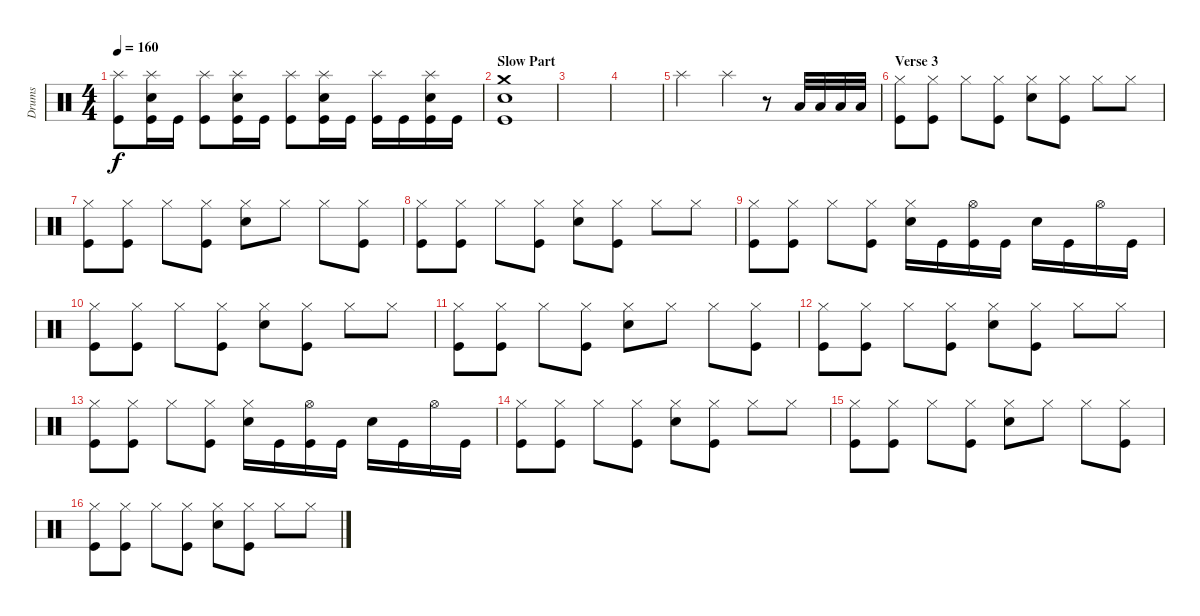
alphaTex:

\track ("Drums" "Drums") {instrument percussion}
\staff {score}
\articulation defaults
\ts (4 4)
\tempo 160
\clef neutral
\ks c
("Splash (hit)" "Kick (hit)").8{dy f} ("Splash (hit)" "Electric Snare (hit)" "Kick (hit)").16 "Kick (hit)".16 ("Splash (hit)" "Kick (hit)").8 ("Splash (hit)" "Electric Snare (hit)" "Kick (hit)").16 "Kick (hit)".16 ("Splash (hit)" "Kick (hit)").8 ("Splash (hit)" "Electric Snare (hit)" "Kick (hit)").16 "Kick (hit)".16 ("Splash (hit)" "Kick (hit)").16 "Kick (hit)".16 ("Splash (hit)" "Electric Snare (hit)" "Kick (hit)").16 "Kick (hit)".16 |
\section ("" "Slow Part")
("Crash medium (hit)" "Electric Snare (hit)" "Kick (hit)").1 |
|
|
"Splash (hit)".2 "Splash (hit)".4 r.8 "Low Floor Tom (hit)".32 "Low Floor Tom (hit)".32 "Low Floor Tom (hit)".32 "Low Floor Tom (hit)".32 |
\section ("" "Verse 3")
("Hi-Hat (closed)" "Kick (hit)").8 ("Hi-Hat (closed)" "Kick (hit)").8 "Hi-Hat (closed)".8 ("Hi-Hat (closed)" "Kick (hit)").8 ("Hi-Hat (closed)" "Electric Snare (hit)").8 ("Hi-Hat (closed)" "Kick (hit)").8 "Hi-Hat (closed)".8 "Hi-Hat (closed)".8 |
("Hi-Hat (closed)" "Kick (hit)").8 ("Hi-Hat (closed)" "Kick (hit)").8 "Hi-Hat (closed)".8 ("Hi-Hat (closed)" "Kick (hit)").8 ("Hi-Hat (closed)" "Electric Snare (hit)").8 "Hi-Hat (closed)".8 "Hi-Hat (closed)".8 ("Hi-Hat (closed)" "Kick (hit)").8 |
("Hi-Hat (closed)" "Kick (hit)").8 ("Hi-Hat (closed)" "Kick (hit)").8 "Hi-Hat (closed)".8 ("Hi-Hat (closed)" "Kick (hit)").8 ("Hi-Hat (closed)" "Electric Snare (hit)").8 ("Hi-Hat (closed)" "Kick (hit)").8 "Hi-Hat (closed)".8 "Hi-Hat (closed)".8 |
("Hi-Hat (closed)" "Kick (hit)").8 ("Hi-Hat (closed)" "Kick (hit)").8 "Hi-Hat (closed)".8 ("Hi-Hat (closed)" "Kick (hit)").8 ("Hi-Hat (closed)" "Electric Snare (hit)").16 "Kick (hit)".16 ("Hi-Hat (open)" "Kick (hit)").16 "Kick (hit)".16 "Electric Snare (hit)".16 "Kick (hit)".16 "Hi-Hat (open)".16 "Kick (hit)".16 |
("Hi-Hat (closed)" "Kick (hit)").8 ("Hi-Hat (closed)" "Kick (hit)").8 "Hi-Hat (closed)".8 ("Hi-Hat (closed)" "Kick (hit)").8 ("Hi-Hat (closed)" "Electric Snare (hit)").8 ("Hi-Hat (closed)" "Kick (hit)").8 "Hi-Hat (closed)".8 "Hi-Hat (closed)".8 |
("Hi-Hat (closed)" "Kick (hit)").8 ("Hi-Hat (closed)" "Kick (hit)").8 "Hi-Hat (closed)".8 ("Hi-Hat (closed)" "Kick (hit)").8 ("Hi-Hat (closed)" "Electric Snare (hit)").8 "Hi-Hat (closed)".8 "Hi-Hat (closed)".8 ("Hi-Hat (closed)" "Kick (hit)").8 |
("Hi-Hat (closed)" "Kick (hit)").8 ("Hi-Hat (closed)" "Kick (hit)").8 "Hi-Hat (closed)".8 ("Hi-Hat (closed)" "Kick (hit)").8 ("Hi-Hat (closed)" "Electric Snare (hit)").8 ("Hi-Hat (closed)" "Kick (hit)").8 "Hi-Hat (closed)".8 "Hi-Hat (closed)".8 |
("Hi-Hat (closed)" "Kick (hit)").8 ("Hi-Hat (closed)" "Kick (hit)").8 "Hi-Hat (closed)".8 ("Hi-Hat (closed)" "Kick (hit)").8 ("Hi-Hat (closed)" "Electric Snare (hit)").16 "Kick (hit)".16 ("Hi-Hat (open)" "Kick (hit)").16 "Kick (hit)".16 "Electric Snare (hit)".16 "Kick (hit)".16 "Hi-Hat (open)".16 "Kick (hit)".16 |
("Hi-Hat (closed)" "Kick (hit)").8 ("Hi-Hat (closed)" "Kick (hit)").8 "Hi-Hat (closed)".8 ("Hi-Hat (closed)" "Kick (hit)").8 ("Hi-Hat (closed)" "Electric Snare (hit)").8 ("Hi-Hat (closed)" "Kick (hit)").8 "Hi-Hat (closed)".8 "Hi-Hat (closed)".8 |
("Hi-Hat (closed)" "Kick (hit)").8 ("Hi-Hat (closed)" "Kick (hit)").8 "Hi-Hat (closed)".8 ("Hi-Hat (closed)" "Kick (hit)").8 ("Hi-Hat (closed)" "Electric Snare (hit)").8 "Hi-Hat (closed)".8 "Hi-Hat (closed)".8 ("Hi-Hat (closed)" "Kick (hit)").8 |
("Hi-Hat (closed)" "Kick (hit)").8 ("Hi-Hat (closed)" "Kick (hit)").8 "Hi-Hat (closed)".8 ("Hi-Hat (closed)" "Kick (hit)").8 ("Hi-Hat (closed)" "Electric Snare (hit)").8 ("Hi-Hat (closed)" "Kick (hit)").8 "Hi-Hat (closed)".8 "Hi-Hat (closed)".8
